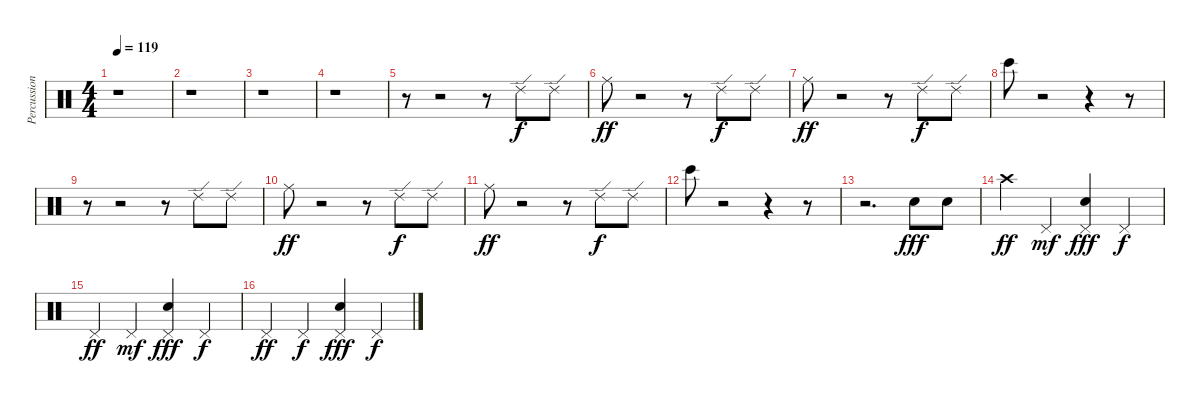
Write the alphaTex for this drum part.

\track ("Percussion" "Percussion") {instrument percussion}
\staff {score}
\articulation defaults
\ts (4 4)
\tempo 119
\clef neutral
\ks c
r.1{dy f} |
r.1 |
r.1 |
r.1 |
r.8 r.2 r.8 "Ride (edge) 2".8 "Ride (edge) 2".8 |
"Ride (middle)".8{dy ff} r.2 r.8 "Ride (edge) 2".8{dy f} "Ride (edge) 2".8 |
"Ride (middle)".8{dy ff} r.2 r.8 "Ride (edge) 2".8{dy f} "Ride (edge) 2".8 |
"Bongo High (hit)".8 r.2 r.4 r.8 |
r.8 r.2 r.8 "Ride (edge) 2".8 "Ride (edge) 2".8 |
"Ride (middle)".8{dy ff} r.2 r.8 "Ride (edge) 2".8{dy f} "Ride (edge) 2".8 |
"Ride (middle)".8{dy ff} r.2 r.8 "Ride (edge) 2".8{dy f} "Ride (edge) 2".8 |
"Bongo High (hit)".8 r.2 r.4 r.8 |
r.2{d} "Electric Snare (hit)".8{dy fff} "Electric Snare (hit)".8 |
"Crash high (hit)".4{dy ff} "Pedal Hi-Hat (hit)".4{dy mf} ("Pedal Hi-Hat (hit)" "Electric Snare (hit)").4{dy fff} "Pedal Hi-Hat (hit)".4{dy f} |
"Pedal Hi-Hat (hit)".4{dy ff} "Pedal Hi-Hat (hit)".4{dy mf} ("Pedal Hi-Hat (hit)" "Electric Snare (hit)").4{dy fff} "Pedal Hi-Hat (hit)".4{dy f} |
"Pedal Hi-Hat (hit)".4{dy ff} "Pedal Hi-Hat (hit)".4{dy f} ("Pedal Hi-Hat (hit)" "Electric Snare (hit)").4{dy fff} "Pedal Hi-Hat (hit)".4{dy f}
